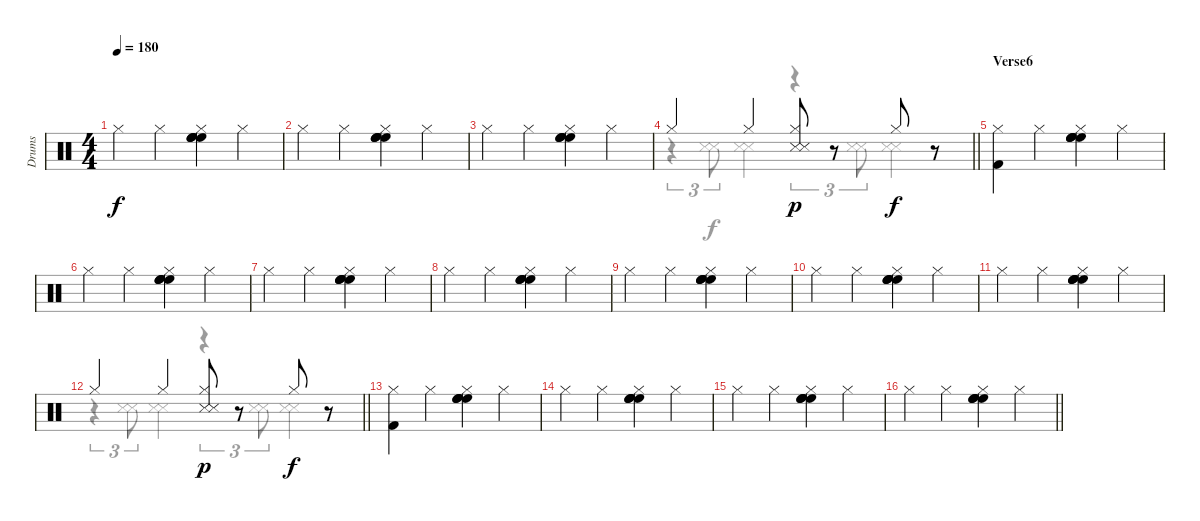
\track ("Drums" "Drums") {instrument percussion}
\staff {score}
\articulation defaults
\voice
\ts (4 4)
\tempo 180
\clef neutral
\ks c "Hi-Hat (closed)".4{dy f} "Hi-Hat (closed)".4
("High Floor Tom (hit)" "High Floor Tom (hit)" "High Floor Tom (hit)" "High Floor Tom (hit)" "Hi-Hat (closed)").4 "Hi-Hat (closed)".4 |
"Hi-Hat (closed)".4 "Hi-Hat (closed)".4 ("High Floor Tom (hit)" "High Floor Tom (hit)" "High Floor Tom (hit)" "High Floor Tom (hit)" "Hi-Hat (closed)").4 "Hi-Hat (closed)".4 |
"Hi-Hat (closed)".4 "Hi-Hat (closed)".4 ("High Floor Tom (hit)" "High Floor Tom (hit)" "High Floor Tom (hit)" "High Floor Tom (hit)" "Hi-Hat (closed)").4 "Hi-Hat (closed)".4 |
\barLineRight lightlight "Hi-Hat (closed)".4 "Hi-Hat (closed)".4
("Snare (side stick) 3" "Snare (side stick) 3" "Hi-Hat (closed)").8{dy p} r.8 "Hi-Hat (closed)".8{dy f} r.8 |
\section ("" "Verse6")
("Kick (hit) 2" "Hi-Hat (closed)").4 "Hi-Hat (closed)".4 ("High Floor Tom (hit)" "High Floor Tom (hit)" "High Floor Tom (hit)" "High Floor Tom (hit)" "Hi-Hat (closed)").4 "Hi-Hat (closed)".4 |
"Hi-Hat (closed)".4 "Hi-Hat (closed)".4 ("High Floor Tom (hit)" "High Floor Tom (hit)" "High Floor Tom (hit)" "High Floor Tom (hit)" "Hi-Hat (closed)").4 "Hi-Hat (closed)".4 |
"Hi-Hat (closed)".4 "Hi-Hat (closed)".4 ("High Floor Tom (hit)" "High Floor Tom (hit)" "High Floor Tom (hit)" "High Floor Tom (hit)" "Hi-Hat (closed)").4 "Hi-Hat (closed)".4 |
"Hi-Hat (closed)".4 "Hi-Hat (closed)".4 ("High Floor Tom (hit)" "High Floor Tom (hit)" "High Floor Tom (hit)" "High Floor Tom (hit)" "Hi-Hat (closed)").4 "Hi-Hat (closed)".4 |
"Hi-Hat (closed)".4 "Hi-Hat (closed)".4 ("High Floor Tom (hit)" "High Floor Tom (hit)" "High Floor Tom (hit)" "High Floor Tom (hit)" "Hi-Hat (closed)").4 "Hi-Hat (closed)".4 |
"Hi-Hat (closed)".4 "Hi-Hat (closed)".4 ("High Floor Tom (hit)" "High Floor Tom (hit)" "High Floor Tom (hit)" "High Floor Tom (hit)" "Hi-Hat (closed)").4 "Hi-Hat (closed)".4 |
"Hi-Hat (closed)".4 "Hi-Hat (closed)".4 ("High Floor Tom (hit)" "High Floor Tom (hit)" "High Floor Tom (hit)" "High Floor Tom (hit)" "Hi-Hat (closed)").4 "Hi-Hat (closed)".4 |
\barLineRight lightlight "Hi-Hat (closed)".4 "Hi-Hat (closed)".4
("Snare (side stick) 3" "Snare (side stick) 3" "Hi-Hat (closed)").8{dy p} r.8 "Hi-Hat (closed)".8{dy f} r.8 |
("Kick (hit) 2" "Hi-Hat (closed)").4 "Hi-Hat (closed)".4 ("High Floor Tom (hit)" "High Floor Tom (hit)" "High Floor Tom (hit)" "High Floor Tom (hit)" "Hi-Hat (closed)").4 "Hi-Hat (closed)".4 |
"Hi-Hat (closed)".4 "Hi-Hat (closed)".4 ("High Floor Tom (hit)" "High Floor Tom (hit)" "High Floor Tom (hit)" "High Floor Tom (hit)" "Hi-Hat (closed)").4 "Hi-Hat (closed)".4 |
"Hi-Hat (closed)".4 "Hi-Hat (closed)".4 ("High Floor Tom (hit)" "High Floor Tom (hit)" "High Floor Tom (hit)" "High Floor Tom (hit)" "Hi-Hat (closed)").4 "Hi-Hat (closed)".4 |
\barLineRight lightlight "Hi-Hat (closed)".4 "Hi-Hat (closed)".4
("High Floor Tom (hit)" "High Floor Tom (hit)" "High Floor Tom (hit)" "High Floor Tom (hit)" "Hi-Hat (closed)").4 "Hi-Hat (closed)".4
\voice
\clef neutral
\ottava regular
\simile none
\ks c
|
|
|
\barLineRight lightlight
r.4{tu (3 2)} ("Snare (side stick) 3" "Snare (side stick) 3").8{tu (3 2)} ("Snare (side stick) 3" "Snare (side stick) 3").4 r.4{tu (3 2)} ("Snare (side stick) 3" "Snare (side stick) 3").8{tu (3 2)} ("Snare (side stick) 3" "Snare (side stick) 3").4 |
|
|
|
|
|
|
|
\barLineRight lightlight
r.4{tu (3 2)} ("Snare (side stick) 3" "Snare (side stick) 3").8{tu (3 2)} ("Snare (side stick) 3" "Snare (side stick) 3").4 r.4{tu (3 2)} ("Snare (side stick) 3" "Snare (side stick) 3").8{tu (3 2)} ("Snare (side stick) 3" "Snare (side stick) 3").4 |
|
|
|
\barLineRight lightlight
